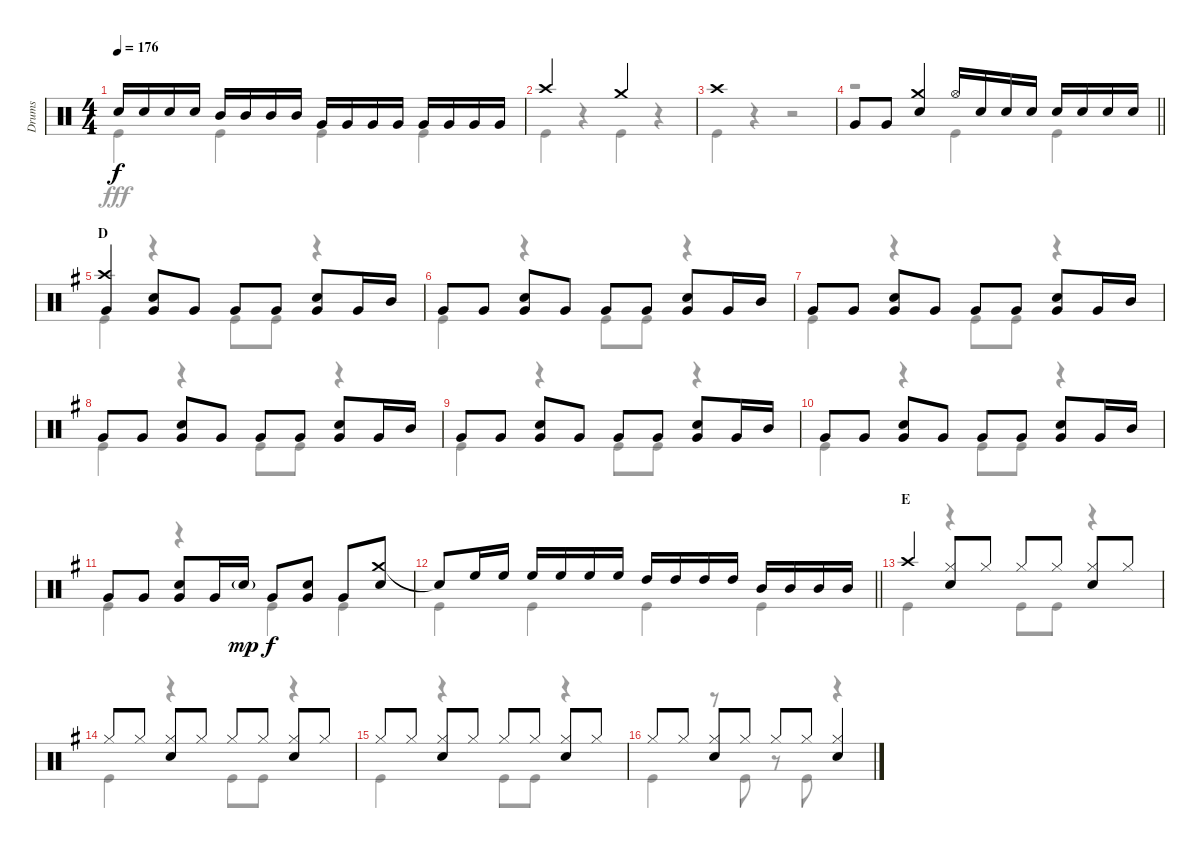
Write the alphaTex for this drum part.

\track ("Drums" "Drums") {instrument percussion}
\staff {score}
\articulation defaults
\voice
\ts (4 4)
\tempo 176
\clef neutral
\ks c "Snare (hit) 2".16{dy f} "Snare (hit) 2".16 "Snare (hit) 2".16 "Snare (hit) 2".16 "Mid Tom (hit)".16 "Mid Tom (hit)".16 "Mid Tom (hit)".16 "Mid Tom (hit)".16 "Very Low Tom (hit)".16 "Very Low Tom (hit)".16 "Very Low Tom (hit)".16 "Very Low Tom (hit)".16 "Very Low Tom (hit)".16 "Very Low Tom (hit)".16 "Very Low Tom (hit)".16 "Very Low Tom (hit)".16
|
"Crash high (hit)".2 "Crash medium (hit)".2 |
"Crash high (hit)".1 |
\barLineRight lightlight "Very Low Tom (hit)".8 "Very Low Tom (hit)".8
("Crash medium (hit)" "Snare (hit) 2").4 "Hi-Hat (open)".16 "Snare (hit) 2".16 "Snare (hit) 2".16 "Snare (hit) 2".16 "Snare (hit) 2".16 "Snare (hit) 2".16 "Snare (hit) 2".16 "Snare (hit) 2".16 |
\section ("" "D")
\ks g
("Crash high (hit)" "Very Low Tom (hit)").4 ("Snare (hit) 2" "Very Low Tom (hit)").8 "Very Low Tom (hit)".8 "Very Low Tom (hit)".8 "Very Low Tom (hit)".8 ("Snare (hit) 2" "Very Low Tom (hit)").8 "Very Low Tom (hit)".16 "Mid Tom (hit)".16 |
"Very Low Tom (hit)".8 "Very Low Tom (hit)".8 ("Very Low Tom (hit)" "Snare (hit) 2").8 "Very Low Tom (hit)".8 "Very Low Tom (hit)".8 "Very Low Tom (hit)".8 ("Very Low Tom (hit)" "Snare (hit) 2").8 "Very Low Tom (hit)".16 "Mid Tom (hit)".16 |
"Very Low Tom (hit)".8 "Very Low Tom (hit)".8 ("Very Low Tom (hit)" "Snare (hit) 2").8 "Very Low Tom (hit)".8 "Very Low Tom (hit)".8 "Very Low Tom (hit)".8 ("Very Low Tom (hit)" "Snare (hit) 2").8 "Very Low Tom (hit)".16 "Mid Tom (hit)".16 |
"Very Low Tom (hit)".8 "Very Low Tom (hit)".8 ("Very Low Tom (hit)" "Snare (hit) 2").8 "Very Low Tom (hit)".8 "Very Low Tom (hit)".8 "Very Low Tom (hit)".8 ("Very Low Tom (hit)" "Snare (hit) 2").8 "Very Low Tom (hit)".16 "Mid Tom (hit)".16 |
"Very Low Tom (hit)".8 "Very Low Tom (hit)".8 ("Very Low Tom (hit)" "Snare (hit) 2").8 "Very Low Tom (hit)".8 "Very Low Tom (hit)".8 "Very Low Tom (hit)".8 ("Very Low Tom (hit)" "Snare (hit) 2").8 "Very Low Tom (hit)".16 "Mid Tom (hit)".16 |
"Very Low Tom (hit)".8 "Very Low Tom (hit)".8 ("Very Low Tom (hit)" "Snare (hit) 2").8 "Very Low Tom (hit)".8 "Very Low Tom (hit)".8 "Very Low Tom (hit)".8 ("Very Low Tom (hit)" "Snare (hit) 2").8 "Very Low Tom (hit)".16 "Mid Tom (hit)".16 |
"Very Low Tom (hit)".8 "Very Low Tom (hit)".8 ("Snare (hit) 2" "Very Low Tom (hit)").8 "Very Low Tom (hit)".16 "Snare (hit) 2"{g}.16{dy mp} "Very Low Tom (hit)".8{dy f} ("Very Low Tom (hit)" "Snare (hit) 2").8 "Very Low Tom (hit)".8 ("Crash medium (hit)" "Snare (hit) 2").8 |
\barLineRight lightlight "Snare (hit)"{t}.8 "High Floor Tom (hit)".16 "High Floor Tom (hit)".16 "High Floor Tom (hit)".16 "High Floor Tom (hit)".16 "High Floor Tom (hit)".16 "High Floor Tom (hit)".16 "High Tom (hit)".16 "High Tom (hit)".16 "High Tom (hit)".16 "High Tom (hit)".16 "Mid Tom (hit)".16 "Mid Tom (hit)".16 "Mid Tom (hit)".16 "Mid Tom (hit)".16
|
\section ("" "E")
"Crash high (hit)".4 ("Hi-Hat (closed)" "Snare (hit) 2").8 "Hi-Hat (closed)".8 "Hi-Hat (closed)".8 "Hi-Hat (closed)".8 ("Hi-Hat (closed)" "Snare (hit) 2").8 "Hi-Hat (closed)".8 |
"Hi-Hat (closed)".8 "Hi-Hat (closed)".8 ("Hi-Hat (closed)" "Snare (hit) 2").8 "Hi-Hat (closed)".8 "Hi-Hat (closed)".8 "Hi-Hat (closed)".8 ("Hi-Hat (closed)" "Snare (hit) 2").8 "Hi-Hat (closed)".8 |
"Hi-Hat (closed)".8 "Hi-Hat (closed)".8 ("Hi-Hat (closed)" "Snare (hit) 2").8 "Hi-Hat (closed)".8 "Hi-Hat (closed)".8 "Hi-Hat (closed)".8 ("Hi-Hat (closed)" "Snare (hit) 2").8 "Hi-Hat (closed)".8 |
"Hi-Hat (closed)".8 "Hi-Hat (closed)".8 ("Hi-Hat (closed)" "Snare (hit) 2").8 "Hi-Hat (closed)".8 "Hi-Hat (closed)".8 "Hi-Hat (closed)".8 ("Hi-Hat (closed)" "Snare (hit) 2").4
\voice
\clef neutral
\ottava regular
\simile none
\ks c "Kick (hit)".4{dy fff} "Kick (hit)".4 "Kick (hit)".4 "Kick (hit)".4
|
"Kick (hit)".4 r.4 "Kick (hit)".4 r.4 |
"Kick (hit)".4 r.4 r.2 |
\barLineRight lightlight
r.2 "Kick (hit)".4 "Kick (hit)".4 |
\ks g "Kick (hit)".4
r.4 "Kick (hit)".8 "Kick (hit)".8 r.4 |
"Kick (hit)".4 r.4 "Kick (hit)".8 "Kick (hit)".8 r.4 |
"Kick (hit)".4 r.4 "Kick (hit)".8 "Kick (hit)".8 r.4 |
"Kick (hit)".4 r.4 "Kick (hit)".8 "Kick (hit)".8 r.4 |
"Kick (hit)".4 r.4 "Kick (hit)".8 "Kick (hit)".8 r.4 |
"Kick (hit)".4 r.4 "Kick (hit)".8 "Kick (hit)".8 r.4 |
"Kick (hit)".4 r.4 "Kick (hit)".4 "Kick (hit)".4 |
\barLineRight lightlight "Kick (hit)".4 "Kick (hit)".4 "Kick (hit)".4 "Kick (hit)".4
|
"Kick (hit)".4 r.4 "Kick (hit)".8 "Kick (hit)".8 r.4 |
"Kick (hit)".4 r.4 "Kick (hit)".8 "Kick (hit)".8 r.4 |
"Kick (hit)".4 r.4 "Kick (hit)".8 "Kick (hit)".8 r.4 |
"Kick (hit)".4 r.8 "Kick (hit)".8 r.8 "Kick (hit)".8 r.4
